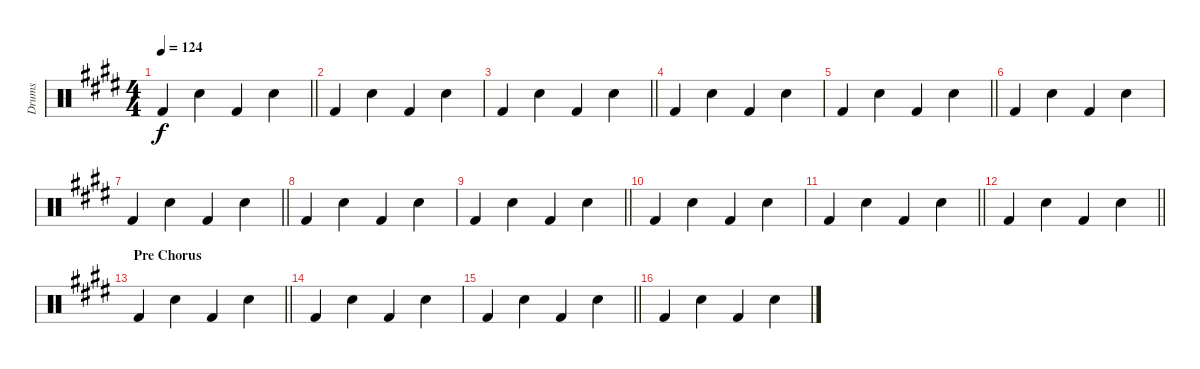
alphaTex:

\track ("Drums" "Drums") {instrument percussion}
\staff {score}
\articulation defaults
\ts (4 4)
\tempo 124
\clef neutral
\barLineRight lightlight
\ks e "Kick (hit) 2".4{dy f} "Snare (hit) 2".4 "Kick (hit) 2".4 "Snare (hit) 2".4
|
"Kick (hit) 2".4 "Snare (hit) 2".4 "Kick (hit) 2".4 "Snare (hit) 2".4 |
\barLineRight lightlight "Kick (hit) 2".4 "Snare (hit) 2".4 "Kick (hit) 2".4 "Snare (hit) 2".4
|
"Kick (hit) 2".4 "Snare (hit) 2".4 "Kick (hit) 2".4 "Snare (hit) 2".4 |
\barLineRight lightlight "Kick (hit) 2".4 "Snare (hit) 2".4 "Kick (hit) 2".4 "Snare (hit) 2".4
|
"Kick (hit) 2".4 "Snare (hit) 2".4 "Kick (hit) 2".4 "Snare (hit) 2".4 |
\barLineRight lightlight "Kick (hit) 2".4 "Snare (hit) 2".4 "Kick (hit) 2".4 "Snare (hit) 2".4
|
"Kick (hit) 2".4 "Snare (hit) 2".4 "Kick (hit) 2".4 "Snare (hit) 2".4 |
\barLineRight lightlight "Kick (hit) 2".4 "Snare (hit) 2".4 "Kick (hit) 2".4 "Snare (hit) 2".4
|
"Kick (hit) 2".4 "Snare (hit) 2".4 "Kick (hit) 2".4 "Snare (hit) 2".4 |
\barLineRight lightlight "Kick (hit) 2".4 "Snare (hit) 2".4 "Kick (hit) 2".4 "Snare (hit) 2".4
|
\barLineRight lightlight "Kick (hit) 2".4 "Snare (hit) 2".4 "Kick (hit) 2".4 "Snare (hit) 2".4
|
\section ("" "Pre Chorus")
\barLineRight lightlight "Kick (hit) 2".4 "Snare (hit) 2".4 "Kick (hit) 2".4 "Snare (hit) 2".4
|
"Kick (hit) 2".4 "Snare (hit) 2".4 "Kick (hit) 2".4 "Snare (hit) 2".4 |
\barLineRight lightlight "Kick (hit) 2".4 "Snare (hit) 2".4 "Kick (hit) 2".4 "Snare (hit) 2".4
|
"Kick (hit) 2".4 "Snare (hit) 2".4 "Kick (hit) 2".4 "Snare (hit) 2".4
